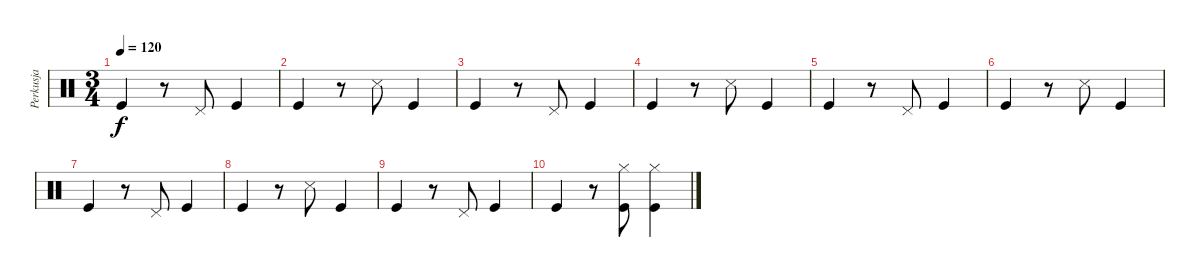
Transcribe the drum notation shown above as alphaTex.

\track ("Perkusja" "Perkusja") {instrument percussion}
\staff {score}
\articulation defaults
\ts (3 4)
\tempo 120
\clef neutral
\ks c "Kick (hit)".4{dy f}
r.8 "Pedal Hi-Hat (hit)".8 "Kick (hit)".4 |
"Kick (hit)".4 r.8 "Snare (side stick) 3".8 "Kick (hit)".4 |
"Kick (hit)".4 r.8 "Pedal Hi-Hat (hit)".8 "Kick (hit)".4 |
"Kick (hit)".4 r.8 "Snare (side stick) 3".8 "Kick (hit)".4 |
"Kick (hit)".4 r.8 "Pedal Hi-Hat (hit)".8 "Kick (hit)".4 |
"Kick (hit)".4 r.8 "Snare (side stick) 3".8 "Kick (hit)".4 |
"Kick (hit)".4 r.8 "Pedal Hi-Hat (hit)".8 "Kick (hit)".4 |
"Kick (hit)".4 r.8 "Snare (side stick) 3".8 "Kick (hit)".4 |
"Kick (hit)".4 r.8 "Pedal Hi-Hat (hit)".8 "Kick (hit)".4 |
"Kick (hit)".4 r.8 ("Kick (hit)" "Hi-Hat (closed)").8 ("Kick (hit)" "Hi-Hat (closed)").4
